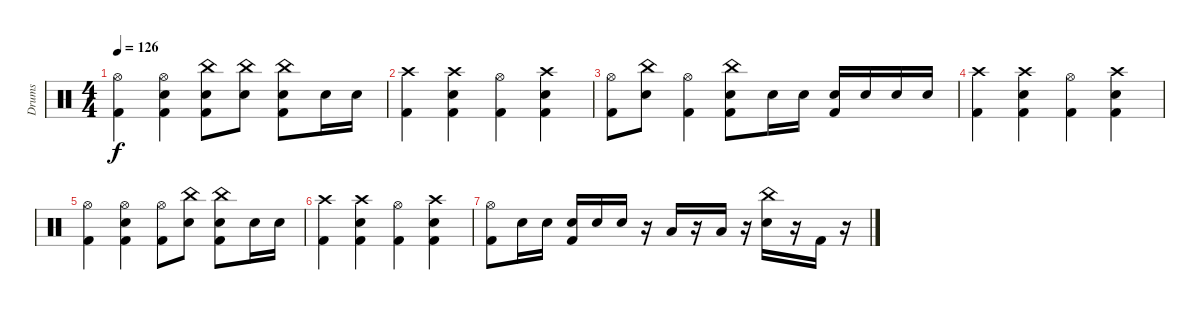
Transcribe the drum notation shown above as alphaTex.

\track ("Drums" "Drums") {instrument percussion}
\staff {score}
\articulation defaults
\ts (4 4)
\tempo 126
\clef neutral
\ks c
("Hi-Hat (open)" "Kick (hit) 2").4{dy f} ("Hi-Hat (open)" "Snare (hit) 2" "Kick (hit) 2").4 ("China (hit)" "Snare (hit) 2" "Kick (hit) 2").8 ("China (hit)" "Snare (hit) 2").8 ("China (hit)" "Snare (hit) 2" "Kick (hit) 2").8 "Snare (hit) 2".16 "Snare (hit) 2".16 |
("Crash high (hit)" "Kick (hit) 2").4 ("Crash high (hit)" "Snare (hit) 2" "Kick (hit) 2").4 ("Hi-Hat (open)" "Kick (hit) 2").4 ("Crash high (hit)" "Snare (hit) 2" "Kick (hit) 2").4 |
("Hi-Hat (open)" "Kick (hit) 2").8 ("China (hit)" "Snare (hit) 2").8 ("Hi-Hat (open)" "Kick (hit) 2").4 ("China (hit)" "Snare (hit) 2" "Kick (hit) 2").8 "Snare (hit) 2".16 "Snare (hit) 2".16 ("Snare (hit) 2" "Kick (hit) 2").16 "Snare (hit) 2".16 "Snare (hit) 2".16 "Snare (hit) 2".16 |
("Crash high (hit)" "Kick (hit) 2").4 ("Crash high (hit)" "Snare (hit) 2" "Kick (hit) 2").4 ("Hi-Hat (open)" "Kick (hit) 2").4 ("Crash high (hit)" "Snare (hit) 2" "Kick (hit) 2").4 |
("Hi-Hat (open)" "Kick (hit) 2").4 ("Hi-Hat (open)" "Snare (hit) 2" "Kick (hit) 2").4 ("Hi-Hat (open)" "Kick (hit) 2").8 ("China (hit)" "Snare (hit) 2").8 ("China (hit)" "Snare (hit) 2" "Kick (hit) 2").8 "Snare (hit) 2".16 "Snare (hit) 2".16 |
("Crash high (hit)" "Kick (hit) 2").4 ("Crash high (hit)" "Snare (hit) 2" "Kick (hit) 2").4 ("Hi-Hat (open)" "Kick (hit) 2").4 ("Crash high (hit)" "Snare (hit) 2" "Kick (hit) 2").4 |
("Hi-Hat (open)" "Kick (hit) 2").8 "Snare (hit) 2".16 "Snare (hit) 2".16 ("Snare (hit) 2" "Kick (hit) 2").16 "Snare (hit) 2".16 "Snare (hit) 2".16 r.16 "Low Tom (hit)".16 r.16 "Low Floor Tom (hit)".16 r.16 ("China (hit)" "Snare (hit) 2").16 r.16 "Kick (hit) 2".16 r.16
